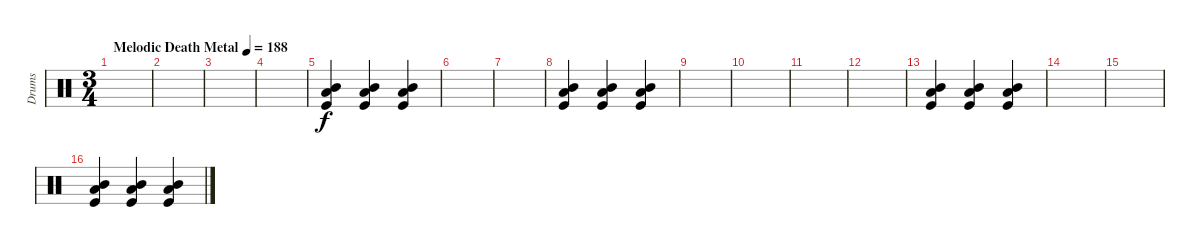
\track ("Drums" "Drums") {instrument percussion}
\staff {score}
\articulation defaults
\ts (3 4)
\tempo (188 "Melodic Death Metal")
\clef neutral
\ks c
|
|
|
|
("Low Tom (hit)" "Mid Tom (hit)" "Kick (hit)").4 ("Low Tom (hit)" "Mid Tom (hit)" "Kick (hit)").4 ("Low Tom (hit)" "Mid Tom (hit)" "Kick (hit)").4 |
|
|
("Low Tom (hit)" "Mid Tom (hit)" "Kick (hit)").4 ("Low Tom (hit)" "Mid Tom (hit)" "Kick (hit)").4 ("Low Tom (hit)" "Mid Tom (hit)" "Kick (hit)").4 |
|
|
|
|
("Low Tom (hit)" "Mid Tom (hit)" "Kick (hit)").4 ("Low Tom (hit)" "Mid Tom (hit)" "Kick (hit)").4 ("Low Tom (hit)" "Mid Tom (hit)" "Kick (hit)").4 |
|
|
("Low Tom (hit)" "Mid Tom (hit)" "Kick (hit)").4 ("Low Tom (hit)" "Mid Tom (hit)" "Kick (hit)").4 ("Low Tom (hit)" "Mid Tom (hit)" "Kick (hit)").4
